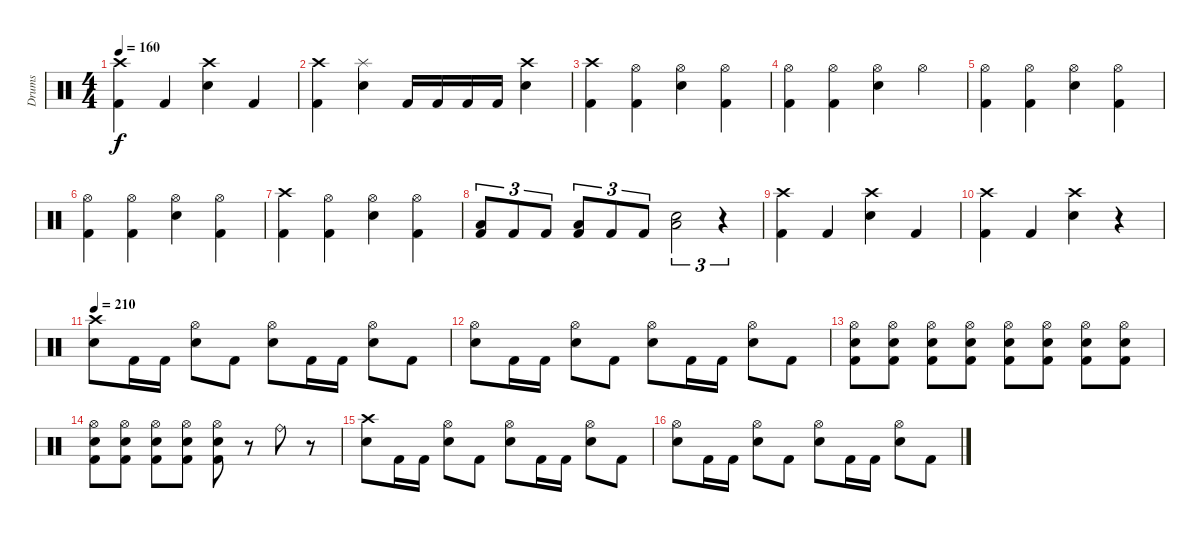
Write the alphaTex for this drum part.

\track ("Drums" "Drums") {instrument percussion}
\staff {score}
\articulation defaults
\ts (4 4)
\tempo 160
\clef neutral
\ks c
("Crash high (hit)" "Kick (hit) 2").4{dy f} "Kick (hit) 2".4 ("Crash high (hit)" "Snare (hit) 2").4 "Kick (hit) 2".4 |
("Crash high (hit)" "Kick (hit) 2").4 ("Splash (hit)" "Snare (hit) 2").4 "Kick (hit) 2".16 "Kick (hit) 2".16 "Kick (hit) 2".16 "Kick (hit) 2".16 ("Crash high (hit)" "Snare (hit) 2").4 |
("Crash high (hit)" "Kick (hit) 2").4 ("Hi-Hat (open)" "Kick (hit) 2").4 ("Hi-Hat (open)" "Snare (hit) 2").4 ("Hi-Hat (open)" "Kick (hit) 2").4 |
("Hi-Hat (open)" "Kick (hit) 2").4 ("Hi-Hat (open)" "Kick (hit) 2").4 ("Hi-Hat (open)" "Snare (hit) 2").4 "Hi-Hat (open)".4 |
("Hi-Hat (open)" "Kick (hit) 2").4 ("Hi-Hat (open)" "Kick (hit) 2").4 ("Hi-Hat (open)" "Snare (hit) 2").4 ("Hi-Hat (open)" "Kick (hit) 2").4 |
("Hi-Hat (open)" "Kick (hit) 2").4 ("Hi-Hat (open)" "Kick (hit) 2").4 ("Hi-Hat (open)" "Snare (hit) 2").4 ("Hi-Hat (open)" "Kick (hit) 2").4 |
("Crash high (hit)" "Kick (hit) 2").4 ("Hi-Hat (open)" "Kick (hit) 2").4 ("Hi-Hat (open)" "Snare (hit) 2").4 ("Hi-Hat (open)" "Kick (hit) 2").4 |
("Low Tom (hit)" "Kick (hit) 2").8{tu (3 2)} "Kick (hit) 2".8{tu (3 2)} "Kick (hit) 2".8{tu (3 2)} ("Low Tom (hit)" "Kick (hit) 2").8{tu (3 2)} "Kick (hit) 2".8{tu (3 2)} "Kick (hit) 2".8{tu (3 2)} ("Low Tom (hit)" "Snare (hit) 2").2{tu (3 2)} r.4{tu (3 2)} |
("Crash high (hit)" "Kick (hit) 2").4 "Kick (hit) 2".4 ("Crash high (hit)" "Snare (hit) 2").4 "Kick (hit) 2".4 |
("Crash high (hit)" "Kick (hit) 2").4 "Kick (hit) 2".4 ("Crash high (hit)" "Snare (hit) 2").4 r.4 |
\tempo 210
("Crash high (hit)" "Snare (hit) 2").8 "Kick (hit) 2".16 "Kick (hit) 2".16 ("Hi-Hat (open)" "Snare (hit) 2").8 "Kick (hit) 2".8 ("Hi-Hat (open)" "Snare (hit) 2").8 "Kick (hit) 2".16 "Kick (hit) 2".16 ("Hi-Hat (open)" "Snare (hit) 2").8 "Kick (hit) 2".8 |
("Hi-Hat (open)" "Snare (hit) 2").8 "Kick (hit) 2".16 "Kick (hit) 2".16 ("Hi-Hat (open)" "Snare (hit) 2").8 "Kick (hit) 2".8 ("Hi-Hat (open)" "Snare (hit) 2").8 "Kick (hit) 2".16 "Kick (hit) 2".16 ("Hi-Hat (open)" "Snare (hit) 2").8 "Kick (hit) 2".8 |
("Hi-Hat (open)" "Snare (hit) 2" "Kick (hit) 2").8 ("Hi-Hat (open)" "Snare (hit) 2" "Kick (hit) 2").8 ("Hi-Hat (open)" "Snare (hit) 2" "Kick (hit) 2").8 ("Hi-Hat (open)" "Snare (hit) 2" "Kick (hit) 2").8 ("Hi-Hat (open)" "Snare (hit) 2" "Kick (hit) 2").8 ("Hi-Hat (open)" "Snare (hit) 2" "Kick (hit) 2").8 ("Hi-Hat (open)" "Snare (hit) 2" "Kick (hit) 2").8 ("Hi-Hat (open)" "Snare (hit) 2" "Kick (hit) 2").8 |
("Hi-Hat (open)" "Snare (hit) 2" "Kick (hit) 2").8 ("Hi-Hat (open)" "Snare (hit) 2" "Kick (hit) 2").8 ("Hi-Hat (open)" "Snare (hit) 2" "Kick (hit) 2").8 ("Hi-Hat (open)" "Snare (hit) 2" "Kick (hit) 2").8 ("Hi-Hat (open)" "Snare (hit) 2" "Kick (hit) 2").8 r.8 "Ride (bell)".8 r.8 |
("Crash high (hit)" "Snare (hit) 2").8 "Kick (hit) 2".16 "Kick (hit) 2".16 ("Hi-Hat (open)" "Snare (hit) 2").8 "Kick (hit) 2".8 ("Hi-Hat (open)" "Snare (hit) 2").8 "Kick (hit) 2".16 "Kick (hit) 2".16 ("Hi-Hat (open)" "Snare (hit) 2").8 "Kick (hit) 2".8 |
("Hi-Hat (open)" "Snare (hit) 2").8 "Kick (hit) 2".16 "Kick (hit) 2".16 ("Hi-Hat (open)" "Snare (hit) 2").8 "Kick (hit) 2".8 ("Hi-Hat (open)" "Snare (hit) 2").8 "Kick (hit) 2".16 "Kick (hit) 2".16 ("Hi-Hat (open)" "Snare (hit) 2").8 "Kick (hit) 2".8
